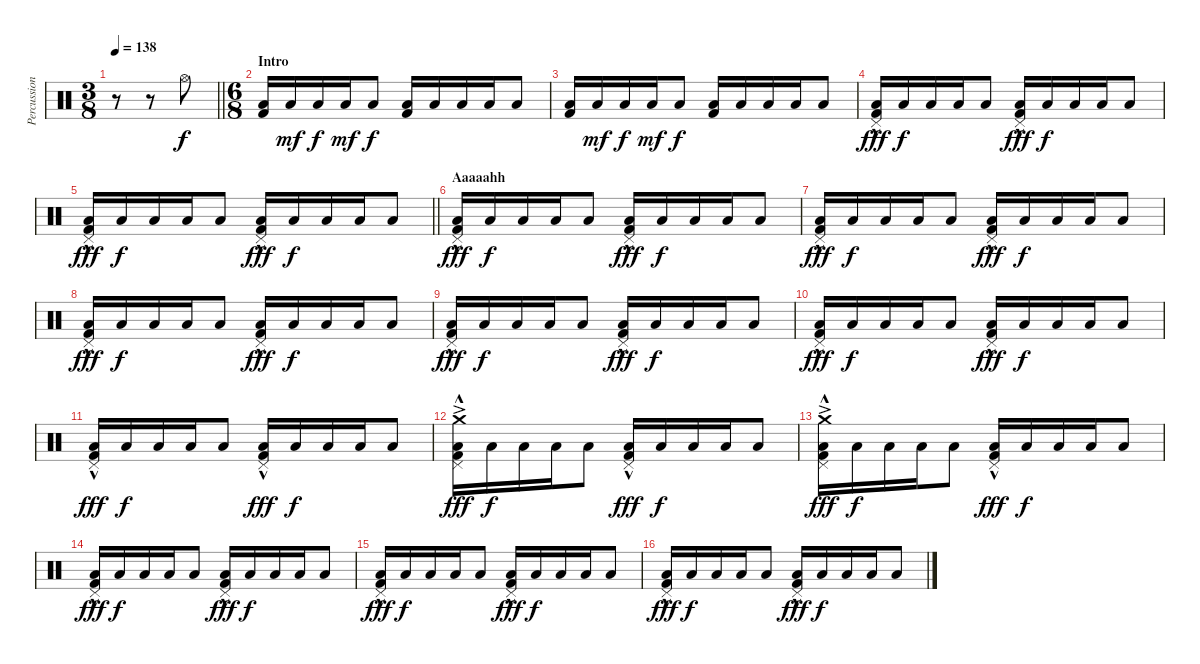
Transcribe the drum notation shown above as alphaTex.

\track ("Percussion" "Percussion") {instrument percussion}
\staff {score}
\articulation defaults
\ts (3 8)
\tempo 138
\clef neutral
\barLineRight lightlight
\ks c
r.8{dy f} r.8 "Hi-Hat (open)".8 |
\ts (6 8)
\section ("" "Intro")
("Low Floor Tom (hit)" "Kick (hit) 2").16 "Low Floor Tom (hit)".16{dy mf} "Low Floor Tom (hit)".16{dy f} "Low Floor Tom (hit)".16{dy mf} "Low Floor Tom (hit)".8{dy f} ("Low Floor Tom (hit)" "Kick (hit) 2").16 "Low Floor Tom (hit)".16 "Low Floor Tom (hit)".16 "Low Floor Tom (hit)".16 "Low Floor Tom (hit)".8 |
("Low Floor Tom (hit)" "Kick (hit) 2").16 "Low Floor Tom (hit)".16{dy mf} "Low Floor Tom (hit)".16{dy f} "Low Floor Tom (hit)".16{dy mf} "Low Floor Tom (hit)".8{dy f} ("Low Floor Tom (hit)" "Kick (hit) 2").16 "Low Floor Tom (hit)".16 "Low Floor Tom (hit)".16 "Low Floor Tom (hit)".16 "Low Floor Tom (hit)".8 |
("Pedal Hi-Hat (hit)"{hac} "Low Floor Tom (hit)" "Kick (hit) 2").16{dy fff} "Low Floor Tom (hit)".16{dy f} "Low Floor Tom (hit)".16 "Low Floor Tom (hit)".16 "Low Floor Tom (hit)".8 ("Pedal Hi-Hat (hit)"{hac} "Low Floor Tom (hit)" "Kick (hit) 2").16{dy fff} "Low Floor Tom (hit)".16{dy f} "Low Floor Tom (hit)".16 "Low Floor Tom (hit)".16 "Low Floor Tom (hit)".8 |
\barLineRight lightlight
("Pedal Hi-Hat (hit)"{hac} "Low Floor Tom (hit)" "Kick (hit) 2").16{dy fff} "Low Floor Tom (hit)".16{dy f} "Low Floor Tom (hit)".16 "Low Floor Tom (hit)".16 "Low Floor Tom (hit)".8 ("Pedal Hi-Hat (hit)"{hac} "Low Floor Tom (hit)" "Kick (hit) 2").16{dy fff} "Low Floor Tom (hit)".16{dy f} "Low Floor Tom (hit)".16 "Low Floor Tom (hit)".16 "Low Floor Tom (hit)".8 |
\section ("" "Aaaaahh")
("Pedal Hi-Hat (hit)"{hac} "Low Floor Tom (hit)" "Kick (hit) 2").16{dy fff} "Low Floor Tom (hit)".16{dy f} "Low Floor Tom (hit)".16 "Low Floor Tom (hit)".16 "Low Floor Tom (hit)".8 ("Pedal Hi-Hat (hit)"{hac} "Low Floor Tom (hit)" "Kick (hit) 2").16{dy fff} "Low Floor Tom (hit)".16{dy f} "Low Floor Tom (hit)".16 "Low Floor Tom (hit)".16 "Low Floor Tom (hit)".8 |
("Pedal Hi-Hat (hit)"{hac} "Low Floor Tom (hit)" "Kick (hit) 2").16{dy fff} "Low Floor Tom (hit)".16{dy f} "Low Floor Tom (hit)".16 "Low Floor Tom (hit)".16 "Low Floor Tom (hit)".8 ("Pedal Hi-Hat (hit)"{hac} "Low Floor Tom (hit)" "Kick (hit) 2").16{dy fff} "Low Floor Tom (hit)".16{dy f} "Low Floor Tom (hit)".16 "Low Floor Tom (hit)".16 "Low Floor Tom (hit)".8 |
("Pedal Hi-Hat (hit)"{hac} "Low Floor Tom (hit)" "Kick (hit) 2").16{dy fff} "Low Floor Tom (hit)".16{dy f} "Low Floor Tom (hit)".16 "Low Floor Tom (hit)".16 "Low Floor Tom (hit)".8 ("Pedal Hi-Hat (hit)"{hac} "Low Floor Tom (hit)" "Kick (hit) 2").16{dy fff} "Low Floor Tom (hit)".16{dy f} "Low Floor Tom (hit)".16 "Low Floor Tom (hit)".16 "Low Floor Tom (hit)".8 |
("Pedal Hi-Hat (hit)"{hac} "Low Floor Tom (hit)" "Kick (hit) 2").16{dy fff} "Low Floor Tom (hit)".16{dy f} "Low Floor Tom (hit)".16 "Low Floor Tom (hit)".16 "Low Floor Tom (hit)".8 ("Pedal Hi-Hat (hit)"{hac} "Low Floor Tom (hit)" "Kick (hit) 2").16{dy fff} "Low Floor Tom (hit)".16{dy f} "Low Floor Tom (hit)".16 "Low Floor Tom (hit)".16 "Low Floor Tom (hit)".8 |
("Pedal Hi-Hat (hit)"{hac} "Low Floor Tom (hit)" "Kick (hit) 2").16{dy fff} "Low Floor Tom (hit)".16{dy f} "Low Floor Tom (hit)".16 "Low Floor Tom (hit)".16 "Low Floor Tom (hit)".8 ("Pedal Hi-Hat (hit)"{hac} "Low Floor Tom (hit)" "Kick (hit) 2").16{dy fff} "Low Floor Tom (hit)".16{dy f} "Low Floor Tom (hit)".16 "Low Floor Tom (hit)".16 "Low Floor Tom (hit)".8 |
("Pedal Hi-Hat (hit)"{hac} "Low Floor Tom (hit)" "Kick (hit) 2").16{dy fff} "Low Floor Tom (hit)".16{dy f} "Low Floor Tom (hit)".16 "Low Floor Tom (hit)".16 "Low Floor Tom (hit)".8 ("Pedal Hi-Hat (hit)"{hac} "Low Floor Tom (hit)" "Kick (hit) 2").16{dy fff} "Low Floor Tom (hit)".16{dy f} "Low Floor Tom (hit)".16 "Low Floor Tom (hit)".16 "Low Floor Tom (hit)".8 |
("Crash medium (hit)"{ac} "Pedal Hi-Hat (hit)"{hac} "Low Floor Tom (hit)" "Kick (hit) 2").16{dy fff} "Low Floor Tom (hit)".16{dy f} "Low Floor Tom (hit)".16 "Low Floor Tom (hit)".16 "Low Floor Tom (hit)".8 ("Pedal Hi-Hat (hit)"{hac} "Low Floor Tom (hit)" "Kick (hit) 2").16{dy fff} "Low Floor Tom (hit)".16{dy f} "Low Floor Tom (hit)".16 "Low Floor Tom (hit)".16 "Low Floor Tom (hit)".8 |
("Crash medium (hit)"{ac} "Pedal Hi-Hat (hit)"{hac} "Low Floor Tom (hit)" "Kick (hit) 2").16{dy fff} "Low Floor Tom (hit)".16{dy f} "Low Floor Tom (hit)".16 "Low Floor Tom (hit)".16 "Low Floor Tom (hit)".8 ("Pedal Hi-Hat (hit)"{hac} "Low Floor Tom (hit)" "Kick (hit) 2").16{dy fff} "Low Floor Tom (hit)".16{dy f} "Low Floor Tom (hit)".16 "Low Floor Tom (hit)".16 "Low Floor Tom (hit)".8 |
("Pedal Hi-Hat (hit)"{hac} "Low Floor Tom (hit)" "Kick (hit) 2").16{dy fff} "Low Floor Tom (hit)".16{dy f} "Low Floor Tom (hit)".16 "Low Floor Tom (hit)".16 "Low Floor Tom (hit)".8 ("Pedal Hi-Hat (hit)"{hac} "Low Floor Tom (hit)" "Kick (hit) 2").16{dy fff} "Low Floor Tom (hit)".16{dy f} "Low Floor Tom (hit)".16 "Low Floor Tom (hit)".16 "Low Floor Tom (hit)".8 |
("Pedal Hi-Hat (hit)"{hac} "Low Floor Tom (hit)" "Kick (hit) 2").16{dy fff} "Low Floor Tom (hit)".16{dy f} "Low Floor Tom (hit)".16 "Low Floor Tom (hit)".16 "Low Floor Tom (hit)".8 ("Pedal Hi-Hat (hit)"{hac} "Low Floor Tom (hit)" "Kick (hit) 2").16{dy fff} "Low Floor Tom (hit)".16{dy f} "Low Floor Tom (hit)".16 "Low Floor Tom (hit)".16 "Low Floor Tom (hit)".8 |
("Pedal Hi-Hat (hit)"{hac} "Low Floor Tom (hit)" "Kick (hit) 2").16{dy fff} "Low Floor Tom (hit)".16{dy f} "Low Floor Tom (hit)".16 "Low Floor Tom (hit)".16 "Low Floor Tom (hit)".8 ("Pedal Hi-Hat (hit)"{hac} "Low Floor Tom (hit)" "Kick (hit) 2").16{dy fff} "Low Floor Tom (hit)".16{dy f} "Low Floor Tom (hit)".16 "Low Floor Tom (hit)".16 "Low Floor Tom (hit)".8
